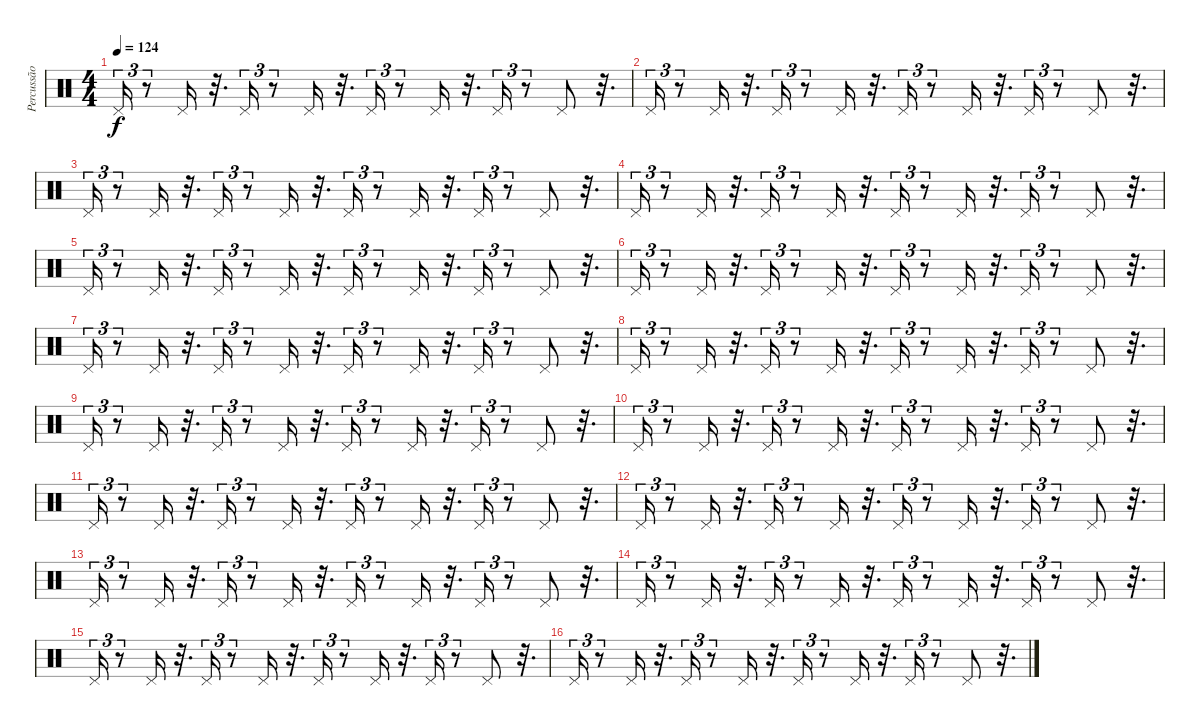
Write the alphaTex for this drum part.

\track ("Percussão" "Percussão") {instrument percussion}
\staff {score}
\articulation defaults
\ts (4 4)
\tempo 124
\clef neutral
\ks c "Pedal Hi-Hat (hit)".16{tu (3 2) dy f}
r.8{tu (3 2)} "Pedal Hi-Hat (hit)".16 r.32{d} "Pedal Hi-Hat (hit)".16{tu (3 2)} r.8{tu (3 2)} "Pedal Hi-Hat (hit)".16 r.32{d} "Pedal Hi-Hat (hit)".16{tu (3 2)} r.8{tu (3 2)} "Pedal Hi-Hat (hit)".16 r.32{d} "Pedal Hi-Hat (hit)".16{tu (3 2)} r.8{tu (3 2)} "Pedal Hi-Hat (hit)".8 r.32{d} |
"Pedal Hi-Hat (hit)".16{tu (3 2)} r.8{tu (3 2)} "Pedal Hi-Hat (hit)".16 r.32{d} "Pedal Hi-Hat (hit)".16{tu (3 2)} r.8{tu (3 2)} "Pedal Hi-Hat (hit)".16 r.32{d} "Pedal Hi-Hat (hit)".16{tu (3 2)} r.8{tu (3 2)} "Pedal Hi-Hat (hit)".16 r.32{d} "Pedal Hi-Hat (hit)".16{tu (3 2)} r.8{tu (3 2)} "Pedal Hi-Hat (hit)".8 r.32{d} |
"Pedal Hi-Hat (hit)".16{tu (3 2)} r.8{tu (3 2)} "Pedal Hi-Hat (hit)".16 r.32{d} "Pedal Hi-Hat (hit)".16{tu (3 2)} r.8{tu (3 2)} "Pedal Hi-Hat (hit)".16 r.32{d} "Pedal Hi-Hat (hit)".16{tu (3 2)} r.8{tu (3 2)} "Pedal Hi-Hat (hit)".16 r.32{d} "Pedal Hi-Hat (hit)".16{tu (3 2)} r.8{tu (3 2)} "Pedal Hi-Hat (hit)".8 r.32{d} |
"Pedal Hi-Hat (hit)".16{tu (3 2)} r.8{tu (3 2)} "Pedal Hi-Hat (hit)".16 r.32{d} "Pedal Hi-Hat (hit)".16{tu (3 2)} r.8{tu (3 2)} "Pedal Hi-Hat (hit)".16 r.32{d} "Pedal Hi-Hat (hit)".16{tu (3 2)} r.8{tu (3 2)} "Pedal Hi-Hat (hit)".16 r.32{d} "Pedal Hi-Hat (hit)".16{tu (3 2)} r.8{tu (3 2)} "Pedal Hi-Hat (hit)".8 r.32{d} |
"Pedal Hi-Hat (hit)".16{tu (3 2)} r.8{tu (3 2)} "Pedal Hi-Hat (hit)".16 r.32{d} "Pedal Hi-Hat (hit)".16{tu (3 2)} r.8{tu (3 2)} "Pedal Hi-Hat (hit)".16 r.32{d} "Pedal Hi-Hat (hit)".16{tu (3 2)} r.8{tu (3 2)} "Pedal Hi-Hat (hit)".16 r.32{d} "Pedal Hi-Hat (hit)".16{tu (3 2)} r.8{tu (3 2)} "Pedal Hi-Hat (hit)".8 r.32{d} |
"Pedal Hi-Hat (hit)".16{tu (3 2)} r.8{tu (3 2)} "Pedal Hi-Hat (hit)".16 r.32{d} "Pedal Hi-Hat (hit)".16{tu (3 2)} r.8{tu (3 2)} "Pedal Hi-Hat (hit)".16 r.32{d} "Pedal Hi-Hat (hit)".16{tu (3 2)} r.8{tu (3 2)} "Pedal Hi-Hat (hit)".16 r.32{d} "Pedal Hi-Hat (hit)".16{tu (3 2)} r.8{tu (3 2)} "Pedal Hi-Hat (hit)".8 r.32{d} |
"Pedal Hi-Hat (hit)".16{tu (3 2)} r.8{tu (3 2)} "Pedal Hi-Hat (hit)".16 r.32{d} "Pedal Hi-Hat (hit)".16{tu (3 2)} r.8{tu (3 2)} "Pedal Hi-Hat (hit)".16 r.32{d} "Pedal Hi-Hat (hit)".16{tu (3 2)} r.8{tu (3 2)} "Pedal Hi-Hat (hit)".16 r.32{d} "Pedal Hi-Hat (hit)".16{tu (3 2)} r.8{tu (3 2)} "Pedal Hi-Hat (hit)".8 r.32{d} |
"Pedal Hi-Hat (hit)".16{tu (3 2)} r.8{tu (3 2)} "Pedal Hi-Hat (hit)".16 r.32{d} "Pedal Hi-Hat (hit)".16{tu (3 2)} r.8{tu (3 2)} "Pedal Hi-Hat (hit)".16 r.32{d} "Pedal Hi-Hat (hit)".16{tu (3 2)} r.8{tu (3 2)} "Pedal Hi-Hat (hit)".16 r.32{d} "Pedal Hi-Hat (hit)".16{tu (3 2)} r.8{tu (3 2)} "Pedal Hi-Hat (hit)".8 r.32{d} |
"Pedal Hi-Hat (hit)".16{tu (3 2)} r.8{tu (3 2)} "Pedal Hi-Hat (hit)".16 r.32{d} "Pedal Hi-Hat (hit)".16{tu (3 2)} r.8{tu (3 2)} "Pedal Hi-Hat (hit)".16 r.32{d} "Pedal Hi-Hat (hit)".16{tu (3 2)} r.8{tu (3 2)} "Pedal Hi-Hat (hit)".16 r.32{d} "Pedal Hi-Hat (hit)".16{tu (3 2)} r.8{tu (3 2)} "Pedal Hi-Hat (hit)".8 r.32{d} |
"Pedal Hi-Hat (hit)".16{tu (3 2)} r.8{tu (3 2)} "Pedal Hi-Hat (hit)".16 r.32{d} "Pedal Hi-Hat (hit)".16{tu (3 2)} r.8{tu (3 2)} "Pedal Hi-Hat (hit)".16 r.32{d} "Pedal Hi-Hat (hit)".16{tu (3 2)} r.8{tu (3 2)} "Pedal Hi-Hat (hit)".16 r.32{d} "Pedal Hi-Hat (hit)".16{tu (3 2)} r.8{tu (3 2)} "Pedal Hi-Hat (hit)".8 r.32{d} |
"Pedal Hi-Hat (hit)".16{tu (3 2)} r.8{tu (3 2)} "Pedal Hi-Hat (hit)".16 r.32{d} "Pedal Hi-Hat (hit)".16{tu (3 2)} r.8{tu (3 2)} "Pedal Hi-Hat (hit)".16 r.32{d} "Pedal Hi-Hat (hit)".16{tu (3 2)} r.8{tu (3 2)} "Pedal Hi-Hat (hit)".16 r.32{d} "Pedal Hi-Hat (hit)".16{tu (3 2)} r.8{tu (3 2)} "Pedal Hi-Hat (hit)".8 r.32{d} |
"Pedal Hi-Hat (hit)".16{tu (3 2)} r.8{tu (3 2)} "Pedal Hi-Hat (hit)".16 r.32{d} "Pedal Hi-Hat (hit)".16{tu (3 2)} r.8{tu (3 2)} "Pedal Hi-Hat (hit)".16 r.32{d} "Pedal Hi-Hat (hit)".16{tu (3 2)} r.8{tu (3 2)} "Pedal Hi-Hat (hit)".16 r.32{d} "Pedal Hi-Hat (hit)".16{tu (3 2)} r.8{tu (3 2)} "Pedal Hi-Hat (hit)".8 r.32{d} |
"Pedal Hi-Hat (hit)".16{tu (3 2)} r.8{tu (3 2)} "Pedal Hi-Hat (hit)".16 r.32{d} "Pedal Hi-Hat (hit)".16{tu (3 2)} r.8{tu (3 2)} "Pedal Hi-Hat (hit)".16 r.32{d} "Pedal Hi-Hat (hit)".16{tu (3 2)} r.8{tu (3 2)} "Pedal Hi-Hat (hit)".16 r.32{d} "Pedal Hi-Hat (hit)".16{tu (3 2)} r.8{tu (3 2)} "Pedal Hi-Hat (hit)".8 r.32{d} |
"Pedal Hi-Hat (hit)".16{tu (3 2)} r.8{tu (3 2)} "Pedal Hi-Hat (hit)".16 r.32{d} "Pedal Hi-Hat (hit)".16{tu (3 2)} r.8{tu (3 2)} "Pedal Hi-Hat (hit)".16 r.32{d} "Pedal Hi-Hat (hit)".16{tu (3 2)} r.8{tu (3 2)} "Pedal Hi-Hat (hit)".16 r.32{d} "Pedal Hi-Hat (hit)".16{tu (3 2)} r.8{tu (3 2)} "Pedal Hi-Hat (hit)".8 r.32{d} |
"Pedal Hi-Hat (hit)".16{tu (3 2)} r.8{tu (3 2)} "Pedal Hi-Hat (hit)".16 r.32{d} "Pedal Hi-Hat (hit)".16{tu (3 2)} r.8{tu (3 2)} "Pedal Hi-Hat (hit)".16 r.32{d} "Pedal Hi-Hat (hit)".16{tu (3 2)} r.8{tu (3 2)} "Pedal Hi-Hat (hit)".16 r.32{d} "Pedal Hi-Hat (hit)".16{tu (3 2)} r.8{tu (3 2)} "Pedal Hi-Hat (hit)".8 r.32{d} |
"Pedal Hi-Hat (hit)".16{tu (3 2)} r.8{tu (3 2)} "Pedal Hi-Hat (hit)".16 r.32{d} "Pedal Hi-Hat (hit)".16{tu (3 2)} r.8{tu (3 2)} "Pedal Hi-Hat (hit)".16 r.32{d} "Pedal Hi-Hat (hit)".16{tu (3 2)} r.8{tu (3 2)} "Pedal Hi-Hat (hit)".16 r.32{d} "Pedal Hi-Hat (hit)".16{tu (3 2)} r.8{tu (3 2)} "Pedal Hi-Hat (hit)".8 r.32{d}
